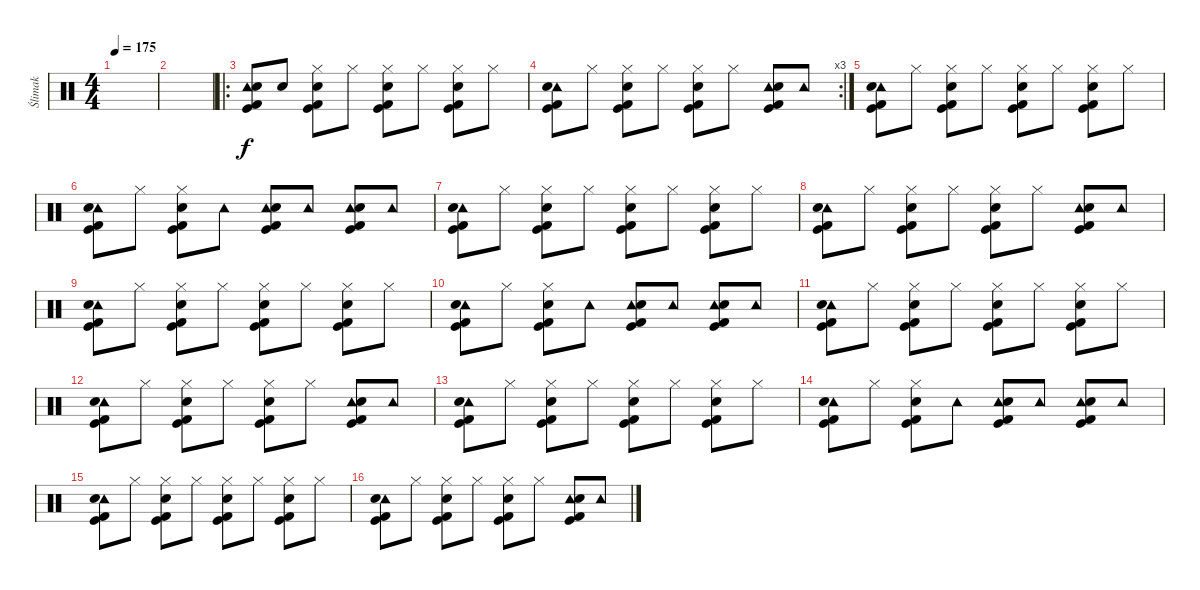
\track ("Ślimak" "Ślimak") {instrument percussion}
\staff {score}
\articulation defaults
\ts (4 4)
\tempo 175
\clef neutral
\ks c
|
|
\ro
("Tambourine (hit)" "Electric Snare (hit)" "Kick (hit) 2" "Kick (hit)").8 "Snare (hit) 2".8 ("Hi-Hat (closed)" "Electric Snare (hit)" "Kick (hit) 2" "Kick (hit)").8 "Hi-Hat (closed)".8 ("Hi-Hat (closed)" "Electric Snare (hit)" "Kick (hit) 2" "Kick (hit)").8 "Hi-Hat (closed)".8 ("Hi-Hat (closed)" "Electric Snare (hit)" "Kick (hit) 2" "Kick (hit)").8 "Hi-Hat (closed)".8 |
\rc 3
("Tambourine (hit)" "Electric Snare (hit)" "Kick (hit) 2" "Kick (hit)").8 "Hi-Hat (closed)".8 ("Hi-Hat (closed)" "Electric Snare (hit)" "Kick (hit) 2" "Kick (hit)").8 "Hi-Hat (closed)".8 ("Hi-Hat (closed)" "Electric Snare (hit)" "Kick (hit) 2" "Kick (hit)").8 "Hi-Hat (closed)".8 ("Tambourine (hit)" "Electric Snare (hit)" "Kick (hit) 2" "Kick (hit)").8 "Tambourine (hit)".8 |
("Tambourine (hit)" "Electric Snare (hit)" "Kick (hit) 2" "Kick (hit)").8 "Hi-Hat (closed)".8 ("Hi-Hat (closed)" "Electric Snare (hit)" "Kick (hit) 2" "Kick (hit)").8 "Hi-Hat (closed)".8 ("Hi-Hat (closed)" "Electric Snare (hit)" "Kick (hit) 2" "Kick (hit)").8 "Hi-Hat (closed)".8 ("Hi-Hat (closed)" "Electric Snare (hit)" "Kick (hit) 2" "Kick (hit)").8 "Hi-Hat (closed)".8 |
("Tambourine (hit)" "Electric Snare (hit)" "Kick (hit) 2" "Kick (hit)").8 "Hi-Hat (closed)".8 ("Hi-Hat (closed)" "Electric Snare (hit)" "Kick (hit) 2" "Kick (hit)").8 "Tambourine (hit)".8 ("Tambourine (hit)" "Electric Snare (hit)" "Kick (hit) 2" "Kick (hit)").8 "Tambourine (hit)".8 ("Tambourine (hit)" "Electric Snare (hit)" "Kick (hit) 2" "Kick (hit)").8 "Tambourine (hit)".8 |
("Tambourine (hit)" "Electric Snare (hit)" "Kick (hit) 2" "Kick (hit)").8 "Hi-Hat (closed)".8 ("Hi-Hat (closed)" "Electric Snare (hit)" "Kick (hit) 2" "Kick (hit)").8 "Hi-Hat (closed)".8 ("Hi-Hat (closed)" "Electric Snare (hit)" "Kick (hit) 2" "Kick (hit)").8 "Hi-Hat (closed)".8 ("Hi-Hat (closed)" "Electric Snare (hit)" "Kick (hit) 2" "Kick (hit)").8 "Hi-Hat (closed)".8 |
("Tambourine (hit)" "Electric Snare (hit)" "Kick (hit) 2" "Kick (hit)").8 "Hi-Hat (closed)".8 ("Hi-Hat (closed)" "Electric Snare (hit)" "Kick (hit) 2" "Kick (hit)").8 "Hi-Hat (closed)".8 ("Hi-Hat (closed)" "Electric Snare (hit)" "Kick (hit) 2" "Kick (hit)").8 "Hi-Hat (closed)".8 ("Tambourine (hit)" "Electric Snare (hit)" "Kick (hit) 2" "Kick (hit)").8 "Tambourine (hit)".8 |
("Tambourine (hit)" "Electric Snare (hit)" "Kick (hit) 2" "Kick (hit)").8 "Hi-Hat (closed)".8 ("Hi-Hat (closed)" "Electric Snare (hit)" "Kick (hit) 2" "Kick (hit)").8 "Hi-Hat (closed)".8 ("Hi-Hat (closed)" "Electric Snare (hit)" "Kick (hit) 2" "Kick (hit)").8 "Hi-Hat (closed)".8 ("Hi-Hat (closed)" "Electric Snare (hit)" "Kick (hit) 2" "Kick (hit)").8 "Hi-Hat (closed)".8 |
("Tambourine (hit)" "Electric Snare (hit)" "Kick (hit) 2" "Kick (hit)").8 "Hi-Hat (closed)".8 ("Hi-Hat (closed)" "Electric Snare (hit)" "Kick (hit) 2" "Kick (hit)").8 "Tambourine (hit)".8 ("Tambourine (hit)" "Electric Snare (hit)" "Kick (hit) 2" "Kick (hit)").8 "Tambourine (hit)".8 ("Tambourine (hit)" "Electric Snare (hit)" "Kick (hit) 2" "Kick (hit)").8 "Tambourine (hit)".8 |
("Tambourine (hit)" "Electric Snare (hit)" "Kick (hit) 2" "Kick (hit)").8 "Hi-Hat (closed)".8 ("Hi-Hat (closed)" "Electric Snare (hit)" "Kick (hit) 2" "Kick (hit)").8 "Hi-Hat (closed)".8 ("Hi-Hat (closed)" "Electric Snare (hit)" "Kick (hit) 2" "Kick (hit)").8 "Hi-Hat (closed)".8 ("Hi-Hat (closed)" "Electric Snare (hit)" "Kick (hit) 2" "Kick (hit)").8 "Hi-Hat (closed)".8 |
("Tambourine (hit)" "Electric Snare (hit)" "Kick (hit) 2" "Kick (hit)").8 "Hi-Hat (closed)".8 ("Hi-Hat (closed)" "Electric Snare (hit)" "Kick (hit) 2" "Kick (hit)").8 "Hi-Hat (closed)".8 ("Hi-Hat (closed)" "Electric Snare (hit)" "Kick (hit) 2" "Kick (hit)").8 "Hi-Hat (closed)".8 ("Tambourine (hit)" "Electric Snare (hit)" "Kick (hit) 2" "Kick (hit)").8 "Tambourine (hit)".8 |
("Tambourine (hit)" "Electric Snare (hit)" "Kick (hit) 2" "Kick (hit)").8 "Hi-Hat (closed)".8 ("Hi-Hat (closed)" "Electric Snare (hit)" "Kick (hit) 2" "Kick (hit)").8 "Hi-Hat (closed)".8 ("Hi-Hat (closed)" "Electric Snare (hit)" "Kick (hit) 2" "Kick (hit)").8 "Hi-Hat (closed)".8 ("Hi-Hat (closed)" "Electric Snare (hit)" "Kick (hit) 2" "Kick (hit)").8 "Hi-Hat (closed)".8 |
("Tambourine (hit)" "Electric Snare (hit)" "Kick (hit) 2" "Kick (hit)").8 "Hi-Hat (closed)".8 ("Hi-Hat (closed)" "Electric Snare (hit)" "Kick (hit) 2" "Kick (hit)").8 "Tambourine (hit)".8 ("Tambourine (hit)" "Electric Snare (hit)" "Kick (hit) 2" "Kick (hit)").8 "Tambourine (hit)".8 ("Tambourine (hit)" "Electric Snare (hit)" "Kick (hit) 2" "Kick (hit)").8 "Tambourine (hit)".8 |
("Tambourine (hit)" "Electric Snare (hit)" "Kick (hit) 2" "Kick (hit)").8 "Hi-Hat (closed)".8 ("Hi-Hat (closed)" "Electric Snare (hit)" "Kick (hit) 2" "Kick (hit)").8 "Hi-Hat (closed)".8 ("Hi-Hat (closed)" "Electric Snare (hit)" "Kick (hit) 2" "Kick (hit)").8 "Hi-Hat (closed)".8 ("Hi-Hat (closed)" "Electric Snare (hit)" "Kick (hit) 2" "Kick (hit)").8 "Hi-Hat (closed)".8 |
("Tambourine (hit)" "Electric Snare (hit)" "Kick (hit) 2" "Kick (hit)").8 "Hi-Hat (closed)".8 ("Hi-Hat (closed)" "Electric Snare (hit)" "Kick (hit) 2" "Kick (hit)").8 "Hi-Hat (closed)".8 ("Hi-Hat (closed)" "Electric Snare (hit)" "Kick (hit) 2" "Kick (hit)").8 "Hi-Hat (closed)".8 ("Tambourine (hit)" "Electric Snare (hit)" "Kick (hit) 2" "Kick (hit)").8 "Tambourine (hit)".8
